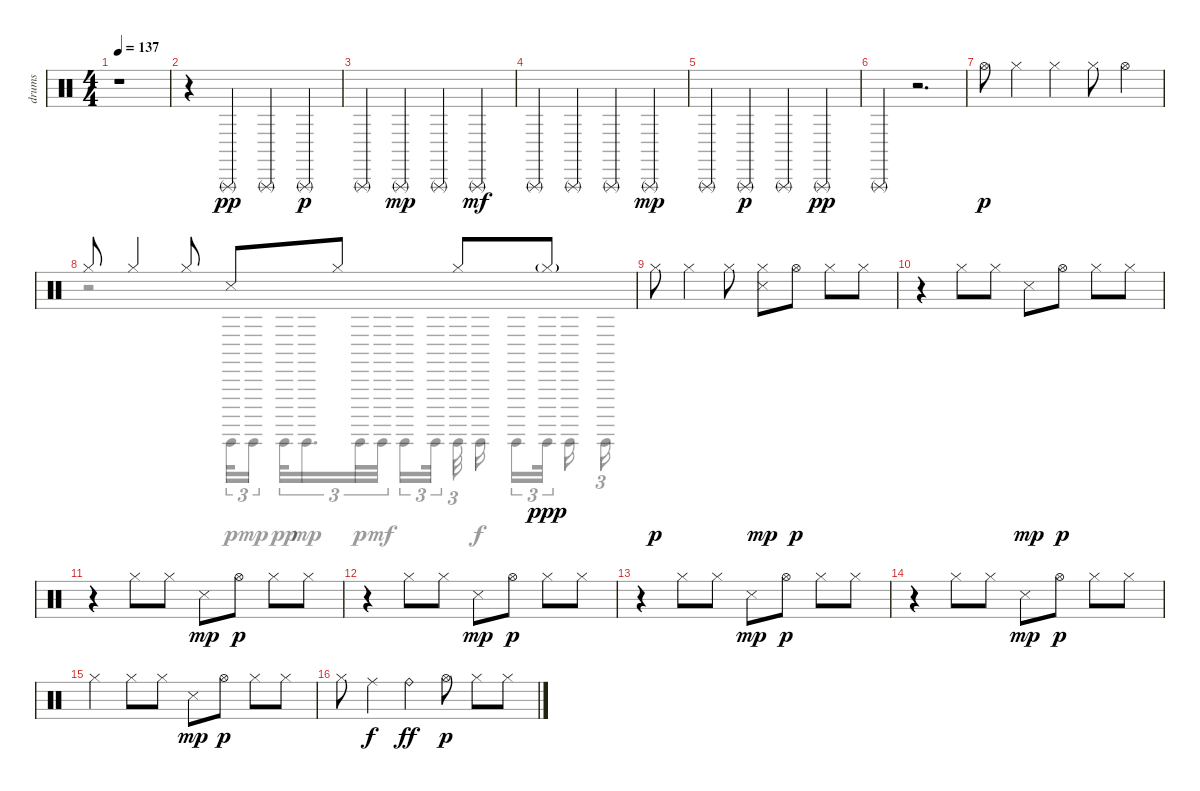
\track ("drums" "drums") {instrument percussion}
\staff {score}
\articulation defaults
\voice
\ts (4 4)
\tempo 137
\clef neutral
\ks c
r.1{dy fff} |
r.4{balance 0} "Triangle (rnute)".4{dy pp balance 16} "Triangle (rnute)".4 "Triangle (rnute)".4{dy p} |
"Triangle (rnute)".4 "Triangle (rnute)".4{dy mp} "Triangle (rnute)".4 "Triangle (rnute)".4{dy mf} |
"Triangle (rnute)".4 "Triangle (rnute)".4 "Triangle (rnute)".4 "Triangle (rnute)".4{dy mp} |
"Triangle (rnute)".4 "Triangle (rnute)".4{dy p} "Triangle (rnute)".4 "Triangle (rnute)".4{dy pp} |
"Triangle (rnute)".4 r.2{d} |
"Hi-Hat (open)".8{dy p volume 14 balance 8} "Hi-Hat (closed)".4 "Hi-Hat (closed)".4 "Hi-Hat (closed)".8 "Hi-Hat (open)".4 |
"Hi-Hat (closed)".8 "Hi-Hat (closed)".4 "Hi-Hat (closed)".8 "Snare (side stick) 3".8 "Hi-Hat (closed)".8 "Hi-Hat (closed)".8 "Hi-Hat (closed)"{g}.8{dy ppp} |
"Hi-Hat (closed)".8{dy p volume 16} "Hi-Hat (closed)".4 "Hi-Hat (closed)".8 ("Hi-Hat (closed)" "Snare (side stick) 3").8{dy mp} "Hi-Hat (open)".8{dy p} "Hi-Hat (closed)".8 "Hi-Hat (closed)".8 |
r.4 "Hi-Hat (closed)".8 "Hi-Hat (closed)".8 "Snare (side stick) 3".8{dy mp} "Hi-Hat (open)".8{dy p} "Hi-Hat (closed)".8 "Hi-Hat (closed)".8 |
r.4 "Hi-Hat (closed)".8 "Hi-Hat (closed)".8 "Snare (side stick) 3".8{dy mp} "Hi-Hat (open)".8{dy p} "Hi-Hat (closed)".8 "Hi-Hat (closed)".8 |
r.4 "Hi-Hat (closed)".8 "Hi-Hat (closed)".8 "Snare (side stick) 3".8{dy mp} "Hi-Hat (open)".8{dy p} "Hi-Hat (closed)".8 "Hi-Hat (closed)".8 |
r.4 "Hi-Hat (closed)".8 "Hi-Hat (closed)".8 "Snare (side stick) 3".8{dy mp} "Hi-Hat (open)".8{dy p} "Hi-Hat (closed)".8 "Hi-Hat (closed)".8 |
r.4 "Hi-Hat (closed)".8 "Hi-Hat (closed)".8 "Snare (side stick) 3".8{dy mp} "Hi-Hat (open)".8{dy p} "Hi-Hat (closed)".8 "Hi-Hat (closed)".8 |
"Hi-Hat (closed)".4 "Hi-Hat (closed)".8 "Hi-Hat (closed)".8 "Snare (side stick) 3".8{dy mp} "Hi-Hat (open)".8{dy p} "Hi-Hat (closed)".8 "Hi-Hat (closed)".8 |
"Hi-Hat (closed)".8 "Ride (middle)".4{dy f} "Ride (bell)".4{dy ff} "Hi-Hat (open)".8{dy p} "Hi-Hat (closed)".8 "Hi-Hat (closed)".8
\voice
\clef neutral
\ottava regular
\simile none
\ks c
|
|
|
|
|
|
|
r.2 "Guiro (hit)".32{tu (3 2)} "Guiro (hit)".16{tu (3 2) dy mp beam splitsecondary} "Guiro (hit)".32{tu (3 2) dy pp} "Guiro (hit)".16{d tu (3 2) dy mp} "Guiro (hit)".32{tu (3 2) dy p} "Guiro (hit)".32{tu (3 2) dy mf} "Guiro (hit)".16{tu (3 2)} "Guiro (hit)".32{tu (3 2)} "Guiro (hit)".32{tu (3 2) beam splitsecondary} "Guiro (hit)".16{dy f beam splitsecondary} "Guiro (hit)".16{tu (3 2)} "Guiro (hit)".32{tu (3 2) beam splitsecondary} "Guiro (hit)".16 "Guiro (hit)".16{tu (3 2)} |
|
|
|
|
|
|
|
